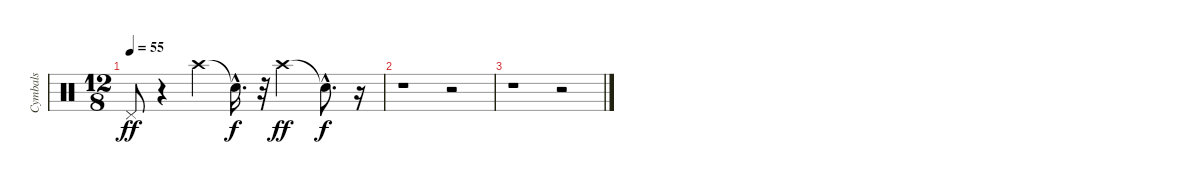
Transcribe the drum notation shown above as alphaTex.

\track ("Cymbals" "Cymbals") {instrument percussion}
\staff {score}
\articulation defaults
\ts (12 8)
\tempo 55
\clef neutral
\ks c "Pedal Hi-Hat (hit)".8{dy ff}
r.4 "Crash high (hit)".4 "Snare (hit)"{hac t}.16{d dy f} r.32 "Crash high (hit)".2{dy ff} "Snare (hit)"{hac t}.8{d dy f} r.16 |
r.1 r.2 |
r.1 r.2
